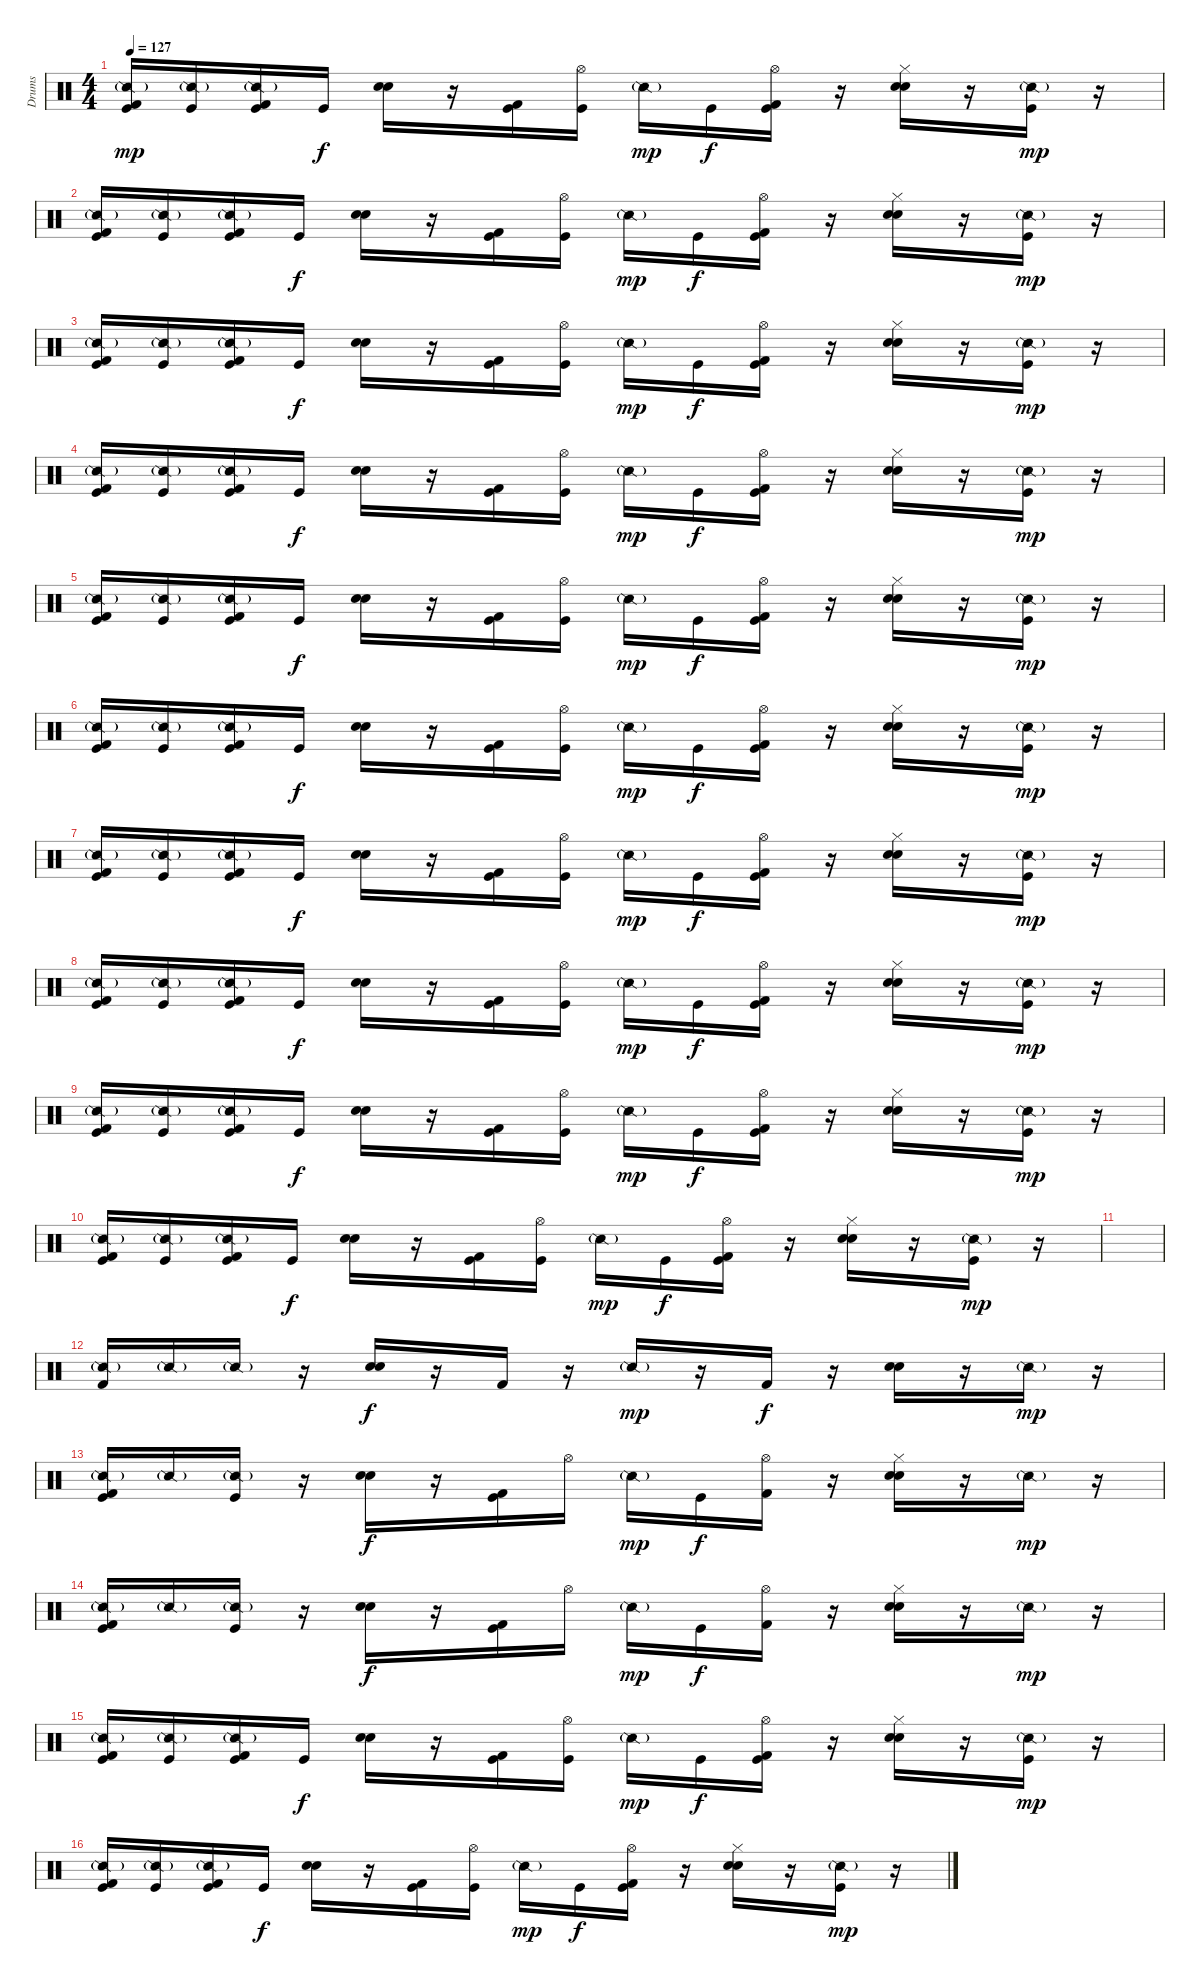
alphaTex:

\track ("Drums" "Drums") {instrument percussion}
\staff {score}
\articulation defaults
\ts (4 4)
\tempo 127
\clef neutral
\ks c
("Snare (side stick) 2"{g} "Kick (hit) 2" "Kick (hit)").16{dy mp} ("Snare (side stick) 2"{g} "Kick (hit)").16 ("Snare (side stick) 2"{g} "Kick (hit) 2" "Kick (hit)").16 "Kick (hit)".16{dy f} ("Snare (hit) 2" "Hand Clap (hit)").16 r.16 ("Kick (hit) 2" "Kick (hit)").16 ("Hi-Hat (open)" "Kick (hit)").16 "Snare (side stick) 2"{g}.16{dy mp} "Kick (hit)".16{dy f} ("Hi-Hat (open)" "Kick (hit) 2" "Kick (hit)").16 r.16 ("Hi-Hat (closed)" "Snare (hit) 2" "Hand Clap (hit)").16 r.16 ("Snare (side stick) 2"{g} "Kick (hit)").16{dy mp} r.16 |
("Snare (side stick) 2"{g} "Kick (hit) 2" "Kick (hit)").16 ("Snare (side stick) 2"{g} "Kick (hit)").16 ("Snare (side stick) 2"{g} "Kick (hit) 2" "Kick (hit)").16 "Kick (hit)".16{dy f} ("Snare (hit) 2" "Hand Clap (hit)").16 r.16 ("Kick (hit) 2" "Kick (hit)").16 ("Hi-Hat (open)" "Kick (hit)").16 "Snare (side stick) 2"{g}.16{dy mp} "Kick (hit)".16{dy f} ("Hi-Hat (open)" "Kick (hit) 2" "Kick (hit)").16 r.16 ("Hi-Hat (closed)" "Snare (hit) 2" "Hand Clap (hit)").16 r.16 ("Snare (side stick) 2"{g} "Kick (hit)").16{dy mp} r.16 |
("Snare (side stick) 2"{g} "Kick (hit) 2" "Kick (hit)").16 ("Snare (side stick) 2"{g} "Kick (hit)").16 ("Snare (side stick) 2"{g} "Kick (hit) 2" "Kick (hit)").16 "Kick (hit)".16{dy f} ("Snare (hit) 2" "Hand Clap (hit)").16 r.16 ("Kick (hit) 2" "Kick (hit)").16 ("Hi-Hat (open)" "Kick (hit)").16 "Snare (side stick) 2"{g}.16{dy mp} "Kick (hit)".16{dy f} ("Hi-Hat (open)" "Kick (hit) 2" "Kick (hit)").16 r.16 ("Hi-Hat (closed)" "Snare (hit) 2" "Hand Clap (hit)").16 r.16 ("Snare (side stick) 2"{g} "Kick (hit)").16{dy mp} r.16 |
("Snare (side stick) 2"{g} "Kick (hit) 2" "Kick (hit)").16 ("Snare (side stick) 2"{g} "Kick (hit)").16 ("Snare (side stick) 2"{g} "Kick (hit) 2" "Kick (hit)").16 "Kick (hit)".16{dy f} ("Snare (hit) 2" "Hand Clap (hit)").16 r.16 ("Kick (hit) 2" "Kick (hit)").16 ("Hi-Hat (open)" "Kick (hit)").16 "Snare (side stick) 2"{g}.16{dy mp} "Kick (hit)".16{dy f} ("Hi-Hat (open)" "Kick (hit) 2" "Kick (hit)").16 r.16 ("Hi-Hat (closed)" "Snare (hit) 2" "Hand Clap (hit)").16 r.16 ("Snare (side stick) 2"{g} "Kick (hit)").16{dy mp} r.16 |
("Snare (side stick) 2"{g} "Kick (hit) 2" "Kick (hit)").16 ("Snare (side stick) 2"{g} "Kick (hit)").16 ("Snare (side stick) 2"{g} "Kick (hit) 2" "Kick (hit)").16 "Kick (hit)".16{dy f} ("Snare (hit) 2" "Hand Clap (hit)").16 r.16 ("Kick (hit) 2" "Kick (hit)").16 ("Hi-Hat (open)" "Kick (hit)").16 "Snare (side stick) 2"{g}.16{dy mp} "Kick (hit)".16{dy f} ("Hi-Hat (open)" "Kick (hit) 2" "Kick (hit)").16 r.16 ("Hi-Hat (closed)" "Snare (hit) 2" "Hand Clap (hit)").16 r.16 ("Snare (side stick) 2"{g} "Kick (hit)").16{dy mp} r.16 |
("Snare (side stick) 2"{g} "Kick (hit) 2" "Kick (hit)").16 ("Snare (side stick) 2"{g} "Kick (hit)").16 ("Snare (side stick) 2"{g} "Kick (hit) 2" "Kick (hit)").16 "Kick (hit)".16{dy f} ("Snare (hit) 2" "Hand Clap (hit)").16 r.16 ("Kick (hit) 2" "Kick (hit)").16 ("Hi-Hat (open)" "Kick (hit)").16 "Snare (side stick) 2"{g}.16{dy mp} "Kick (hit)".16{dy f} ("Hi-Hat (open)" "Kick (hit) 2" "Kick (hit)").16 r.16 ("Hi-Hat (closed)" "Snare (hit) 2" "Hand Clap (hit)").16 r.16 ("Snare (side stick) 2"{g} "Kick (hit)").16{dy mp} r.16 |
("Snare (side stick) 2"{g} "Kick (hit) 2" "Kick (hit)").16 ("Snare (side stick) 2"{g} "Kick (hit)").16 ("Snare (side stick) 2"{g} "Kick (hit) 2" "Kick (hit)").16 "Kick (hit)".16{dy f} ("Snare (hit) 2" "Hand Clap (hit)").16 r.16 ("Kick (hit) 2" "Kick (hit)").16 ("Hi-Hat (open)" "Kick (hit)").16 "Snare (side stick) 2"{g}.16{dy mp} "Kick (hit)".16{dy f} ("Hi-Hat (open)" "Kick (hit) 2" "Kick (hit)").16 r.16 ("Hi-Hat (closed)" "Snare (hit) 2" "Hand Clap (hit)").16 r.16 ("Snare (side stick) 2"{g} "Kick (hit)").16{dy mp} r.16 |
("Snare (side stick) 2"{g} "Kick (hit) 2" "Kick (hit)").16 ("Snare (side stick) 2"{g} "Kick (hit)").16 ("Snare (side stick) 2"{g} "Kick (hit) 2" "Kick (hit)").16 "Kick (hit)".16{dy f} ("Snare (hit) 2" "Hand Clap (hit)").16 r.16 ("Kick (hit) 2" "Kick (hit)").16 ("Hi-Hat (open)" "Kick (hit)").16 "Snare (side stick) 2"{g}.16{dy mp} "Kick (hit)".16{dy f} ("Hi-Hat (open)" "Kick (hit) 2" "Kick (hit)").16 r.16 ("Hi-Hat (closed)" "Snare (hit) 2" "Hand Clap (hit)").16 r.16 ("Snare (side stick) 2"{g} "Kick (hit)").16{dy mp} r.16 |
("Snare (side stick) 2"{g} "Kick (hit) 2" "Kick (hit)").16 ("Snare (side stick) 2"{g} "Kick (hit)").16 ("Snare (side stick) 2"{g} "Kick (hit) 2" "Kick (hit)").16 "Kick (hit)".16{dy f} ("Snare (hit) 2" "Hand Clap (hit)").16 r.16 ("Kick (hit) 2" "Kick (hit)").16 ("Hi-Hat (open)" "Kick (hit)").16 "Snare (side stick) 2"{g}.16{dy mp} "Kick (hit)".16{dy f} ("Hi-Hat (open)" "Kick (hit) 2" "Kick (hit)").16 r.16 ("Hi-Hat (closed)" "Snare (hit) 2" "Hand Clap (hit)").16 r.16 ("Snare (side stick) 2"{g} "Kick (hit)").16{dy mp} r.16 |
("Snare (side stick) 2"{g} "Kick (hit) 2" "Kick (hit)").16 ("Snare (side stick) 2"{g} "Kick (hit)").16 ("Snare (side stick) 2"{g} "Kick (hit) 2" "Kick (hit)").16 "Kick (hit)".16{dy f} ("Snare (hit) 2" "Hand Clap (hit)").16 r.16 ("Kick (hit) 2" "Kick (hit)").16 ("Hi-Hat (open)" "Kick (hit)").16 "Snare (side stick) 2"{g}.16{dy mp} "Kick (hit)".16{dy f} ("Hi-Hat (open)" "Kick (hit) 2" "Kick (hit)").16 r.16 ("Hi-Hat (closed)" "Snare (hit) 2" "Hand Clap (hit)").16 r.16 ("Snare (side stick) 2"{g} "Kick (hit)").16{dy mp} r.16 |
|
("Snare (side stick) 2"{g} "Kick (hit) 2").16 "Snare (side stick) 2"{g}.16 "Snare (side stick) 2"{g}.16 r.16 ("Snare (hit) 2" "Hand Clap (hit)").16{dy f} r.16 "Kick (hit) 2".16 r.16 "Snare (side stick) 2"{g}.16{dy mp} r.16 "Kick (hit) 2".16{dy f} r.16 ("Snare (hit) 2" "Hand Clap (hit)").16 r.16 "Snare (side stick) 2"{g}.16{dy mp} r.16 |
("Snare (side stick) 2"{g} "Kick (hit) 2" "Kick (hit)").16 "Snare (side stick) 2"{g}.16 ("Snare (side stick) 2"{g} "Kick (hit)").16 r.16 ("Snare (hit) 2" "Hand Clap (hit)").16{dy f} r.16 ("Kick (hit) 2" "Kick (hit)").16 "Hi-Hat (open)".16 "Snare (side stick) 2"{g}.16{dy mp} "Kick (hit)".16{dy f} ("Hi-Hat (open)" "Kick (hit) 2").16 r.16 ("Hi-Hat (closed)" "Snare (hit) 2" "Hand Clap (hit)").16 r.16 "Snare (side stick) 2"{g}.16{dy mp} r.16 |
("Snare (side stick) 2"{g} "Kick (hit) 2" "Kick (hit)").16 "Snare (side stick) 2"{g}.16 ("Snare (side stick) 2"{g} "Kick (hit)").16 r.16 ("Snare (hit) 2" "Hand Clap (hit)").16{dy f} r.16 ("Kick (hit) 2" "Kick (hit)").16 "Hi-Hat (open)".16 "Snare (side stick) 2"{g}.16{dy mp} "Kick (hit)".16{dy f} ("Hi-Hat (open)" "Kick (hit) 2").16 r.16 ("Hi-Hat (closed)" "Snare (hit) 2" "Hand Clap (hit)").16 r.16 "Snare (side stick) 2"{g}.16{dy mp} r.16 |
("Snare (side stick) 2"{g} "Kick (hit) 2" "Kick (hit)").16 ("Snare (side stick) 2"{g} "Kick (hit)").16 ("Snare (side stick) 2"{g} "Kick (hit) 2" "Kick (hit)").16 "Kick (hit)".16{dy f} ("Snare (hit) 2" "Hand Clap (hit)").16 r.16 ("Kick (hit) 2" "Kick (hit)").16 ("Hi-Hat (open)" "Kick (hit)").16 "Snare (side stick) 2"{g}.16{dy mp} "Kick (hit)".16{dy f} ("Hi-Hat (open)" "Kick (hit) 2" "Kick (hit)").16 r.16 ("Hi-Hat (closed)" "Snare (hit) 2" "Hand Clap (hit)").16 r.16 ("Snare (side stick) 2"{g} "Kick (hit)").16{dy mp} r.16 |
("Snare (side stick) 2"{g} "Kick (hit) 2" "Kick (hit)").16 ("Snare (side stick) 2"{g} "Kick (hit)").16 ("Snare (side stick) 2"{g} "Kick (hit) 2" "Kick (hit)").16 "Kick (hit)".16{dy f} ("Snare (hit) 2" "Hand Clap (hit)").16 r.16 ("Kick (hit) 2" "Kick (hit)").16 ("Hi-Hat (open)" "Kick (hit)").16 "Snare (side stick) 2"{g}.16{dy mp} "Kick (hit)".16{dy f} ("Hi-Hat (open)" "Kick (hit) 2" "Kick (hit)").16 r.16 ("Hi-Hat (closed)" "Snare (hit) 2" "Hand Clap (hit)").16 r.16 ("Snare (side stick) 2"{g} "Kick (hit)").16{dy mp} r.16
